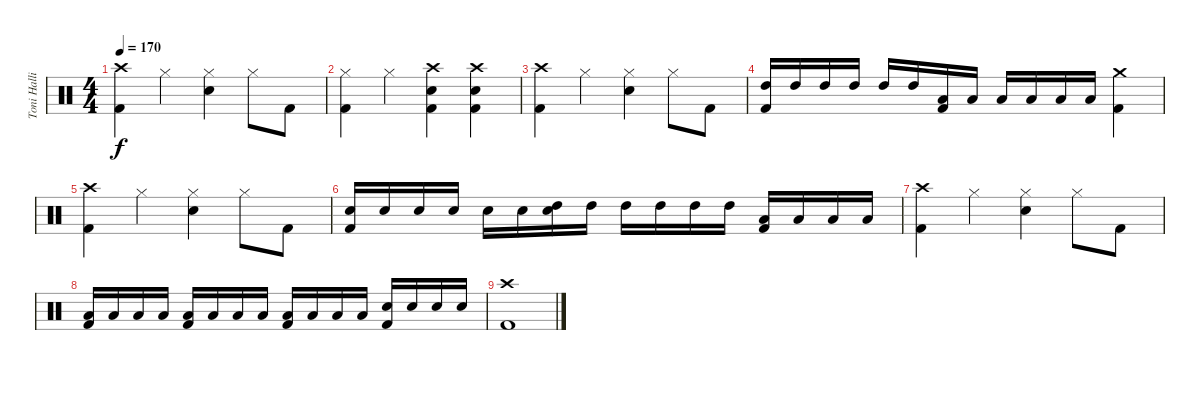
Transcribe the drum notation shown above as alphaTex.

\track ("Toni Hallio" "Toni Halli") {instrument percussion}
\staff {score}
\articulation defaults
\ts (4 4)
\tempo 170
\clef neutral
\ks c
("Crash high (hit)" "Kick (hit) 2").4{dy f} "Hi-Hat (closed)".4 ("Hi-Hat (closed)" "Snare (hit) 2").4 "Hi-Hat (closed)".8 "Kick (hit) 2".8 |
("Hi-Hat (closed)" "Kick (hit) 2").4 "Hi-Hat (closed)".4 ("Crash high (hit)" "Snare (hit) 2" "Kick (hit) 2").4 ("Crash high (hit)" "Snare (hit) 2" "Kick (hit) 2").4 |
("Crash high (hit)" "Kick (hit) 2").4 "Hi-Hat (closed)".4 ("Hi-Hat (closed)" "Snare (hit) 2").4 "Hi-Hat (closed)".8 "Kick (hit) 2".8 |
("High Tom (hit)" "Kick (hit) 2").16 "High Tom (hit)".16 "High Tom (hit)".16 "High Tom (hit)".16 "High Tom (hit)".16 "High Tom (hit)".16 ("Low Floor Tom (hit)" "Kick (hit) 2").16 "Low Floor Tom (hit)".16 "Low Floor Tom (hit)".16 "Low Floor Tom (hit)".16 "Low Floor Tom (hit)".16 "Low Floor Tom (hit)".16 ("Crash medium (hit)" "Kick (hit) 2").4 |
("Crash high (hit)" "Kick (hit) 2").4 "Hi-Hat (closed)".4 ("Hi-Hat (closed)" "Snare (hit) 2").4 "Hi-Hat (closed)".8 "Kick (hit) 2".8 |
("Snare (hit) 2" "Kick (hit) 2").16 "Snare (hit) 2".16 "Snare (hit) 2".16 "Snare (hit) 2".16 "Snare (hit) 2".16 "Snare (hit) 2".16 ("High Tom (hit)" "Snare (hit) 2").16 "High Tom (hit)".16 "High Tom (hit)".16 "High Tom (hit)".16 "High Tom (hit)".16 "High Tom (hit)".16 ("Low Floor Tom (hit)" "Kick (hit) 2").16 "Low Floor Tom (hit)".16 "Low Floor Tom (hit)".16 "Low Floor Tom (hit)".16 |
("Crash high (hit)" "Kick (hit) 2").4 "Hi-Hat (closed)".4 ("Hi-Hat (closed)" "Snare (hit) 2").4 "Hi-Hat (closed)".8 "Kick (hit) 2".8 |
("Low Tom (hit)" "Kick (hit) 2").16 "Low Tom (hit)".16 "Low Tom (hit)".16 "Low Tom (hit)".16 ("Low Floor Tom (hit)" "Kick (hit) 2").16 "Low Floor Tom (hit)".16 "Low Floor Tom (hit)".16 "Low Floor Tom (hit)".16 ("Low Floor Tom (hit)" "Kick (hit) 2").16 "Low Floor Tom (hit)".16 "Low Floor Tom (hit)".16 "Low Floor Tom (hit)".16 ("Snare (hit) 2" "Kick (hit) 2").16 "Snare (hit) 2".16 "Snare (hit) 2".16 "Snare (hit) 2".16 |
("Crash high (hit)" "Kick (hit) 2").1
